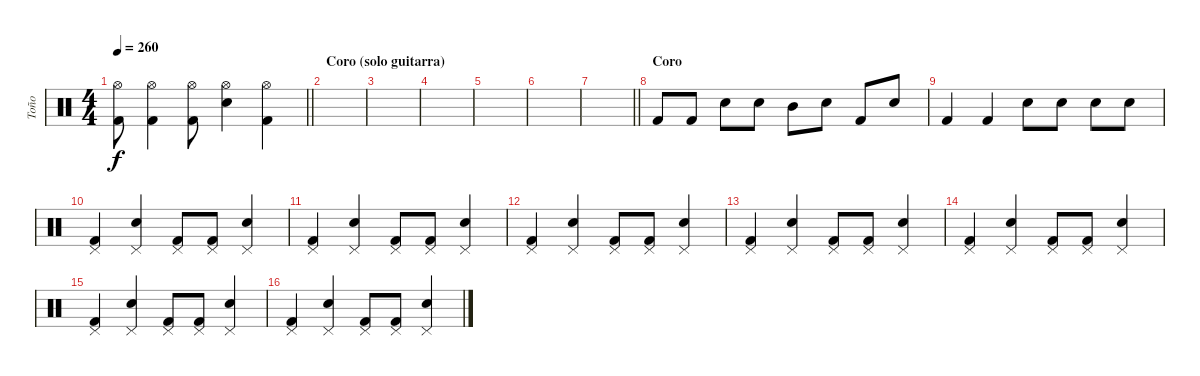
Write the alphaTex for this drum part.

\track ("Toño" "Toño") {instrument percussion}
\staff {score}
\articulation defaults
\ts (4 4)
\tempo 260
\clef neutral
\barLineRight lightlight
\ks c
("Hi-Hat (open)" "Kick (hit) 2").8{dy f} ("Hi-Hat (open)" "Kick (hit) 2").4 ("Hi-Hat (open)" "Kick (hit) 2").8 ("Hi-Hat (open)" "Electric Snare (hit)").4 ("Hi-Hat (open)" "Kick (hit) 2").4 |
\section ("" "Coro (solo guitarra)")
|
|
|
|
|
\barLineRight lightlight
|
\section ("" "Coro")
"Kick (hit) 2".8 "Kick (hit) 2".8 "Electric Snare (hit)".8 "Electric Snare (hit)".8 "Mid Tom (hit)".8 "Electric Snare (hit)".8 "Kick (hit) 2".8 "Electric Snare (hit)".8 |
"Kick (hit) 2".4 "Kick (hit) 2".4 "Electric Snare (hit)".8 "Electric Snare (hit)".8 "Electric Snare (hit)".8 "Electric Snare (hit)".8 |
("Pedal Hi-Hat (hit)" "Kick (hit) 2").4 ("Pedal Hi-Hat (hit)" "Electric Snare (hit)").4 ("Pedal Hi-Hat (hit)" "Kick (hit) 2").8 ("Pedal Hi-Hat (hit)" "Kick (hit) 2").8 ("Pedal Hi-Hat (hit)" "Electric Snare (hit)").4 |
("Pedal Hi-Hat (hit)" "Kick (hit) 2").4 ("Pedal Hi-Hat (hit)" "Electric Snare (hit)").4 ("Pedal Hi-Hat (hit)" "Kick (hit) 2").8 ("Pedal Hi-Hat (hit)" "Kick (hit) 2").8 ("Pedal Hi-Hat (hit)" "Electric Snare (hit)").4 |
("Pedal Hi-Hat (hit)" "Kick (hit) 2").4 ("Pedal Hi-Hat (hit)" "Electric Snare (hit)").4 ("Pedal Hi-Hat (hit)" "Kick (hit) 2").8 ("Pedal Hi-Hat (hit)" "Kick (hit) 2").8 ("Pedal Hi-Hat (hit)" "Electric Snare (hit)").4 |
("Pedal Hi-Hat (hit)" "Kick (hit) 2").4 ("Pedal Hi-Hat (hit)" "Electric Snare (hit)").4 ("Pedal Hi-Hat (hit)" "Kick (hit) 2").8 ("Pedal Hi-Hat (hit)" "Kick (hit) 2").8 ("Pedal Hi-Hat (hit)" "Electric Snare (hit)").4 |
("Pedal Hi-Hat (hit)" "Kick (hit) 2").4 ("Pedal Hi-Hat (hit)" "Electric Snare (hit)").4 ("Pedal Hi-Hat (hit)" "Kick (hit) 2").8 ("Pedal Hi-Hat (hit)" "Kick (hit) 2").8 ("Pedal Hi-Hat (hit)" "Electric Snare (hit)").4 |
("Pedal Hi-Hat (hit)" "Kick (hit) 2").4 ("Pedal Hi-Hat (hit)" "Electric Snare (hit)").4 ("Pedal Hi-Hat (hit)" "Kick (hit) 2").8 ("Pedal Hi-Hat (hit)" "Kick (hit) 2").8 ("Pedal Hi-Hat (hit)" "Electric Snare (hit)").4 |
("Pedal Hi-Hat (hit)" "Kick (hit) 2").4 ("Pedal Hi-Hat (hit)" "Electric Snare (hit)").4 ("Pedal Hi-Hat (hit)" "Kick (hit) 2").8 ("Pedal Hi-Hat (hit)" "Kick (hit) 2").8 ("Pedal Hi-Hat (hit)" "Electric Snare (hit)").4
